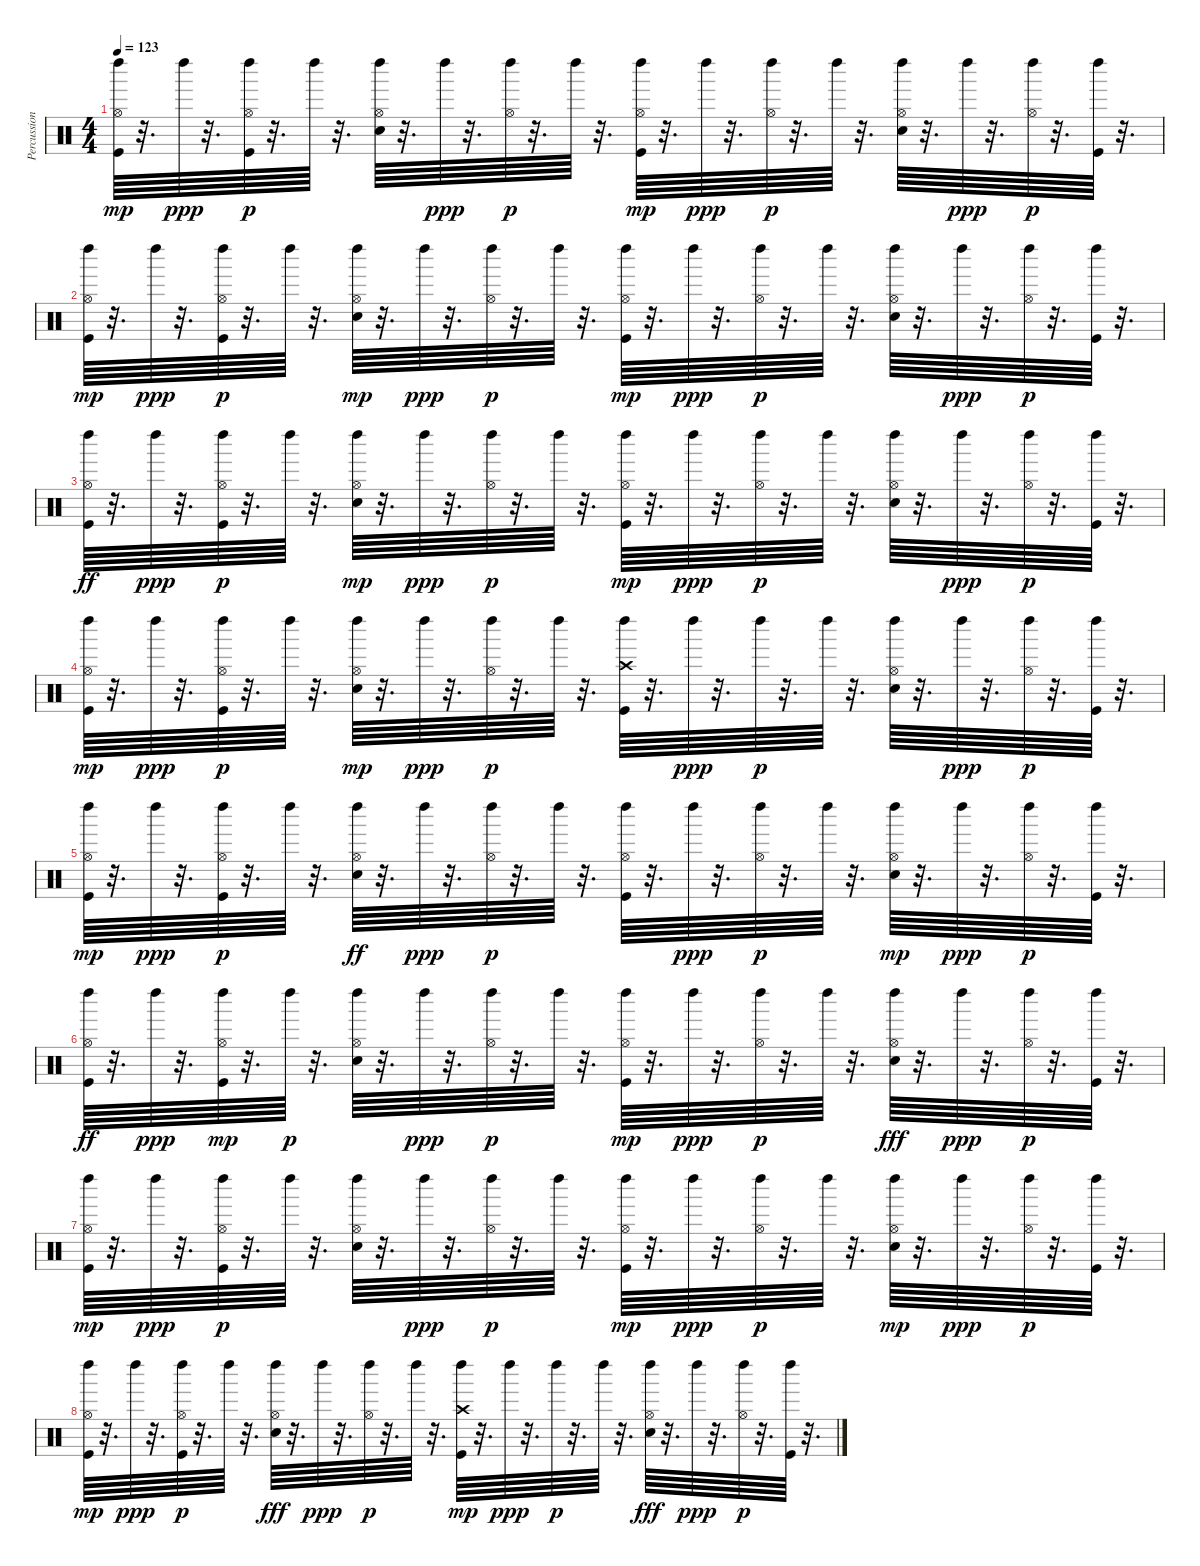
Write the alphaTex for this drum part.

\track ("Percussion" "Percussion") {instrument percussion}
\staff {score}
\articulation defaults
\ts (4 4)
\tempo 123
\clef neutral
\ks c
("Kick (hit)" "Hi-Hat (open)" "Left Maraca (hit)").64{dy mp} r.32{d} "Left Maraca (hit)".64{dy ppp} r.32{d} ("Kick (hit)" "Hi-Hat (open)" "Left Maraca (hit)").64{dy p} r.32{d} "Left Maraca (hit)".64 r.32{d} ("Left Maraca (hit)" "Electric Snare (hit)" "Hi-Hat (open)").64 r.32{d} "Left Maraca (hit)".64{dy ppp} r.32{d} ("Hi-Hat (open)" "Left Maraca (hit)").64{dy p} r.32{d} "Left Maraca (hit)".64 r.32{d} ("Kick (hit)" "Hi-Hat (open)" "Left Maraca (hit)").64{dy mp} r.32{d} "Left Maraca (hit)".64{dy ppp} r.32{d} ("Hi-Hat (open)" "Left Maraca (hit)").64{dy p} r.32{d} "Left Maraca (hit)".64 r.32{d} ("Left Maraca (hit)" "Electric Snare (hit)" "Hi-Hat (open)").64 r.32{d} "Left Maraca (hit)".64{dy ppp} r.32{d} ("Hi-Hat (open)" "Left Maraca (hit)").64{dy p} r.32{d} ("Kick (hit)" "Left Maraca (hit)").64 r.32{d} |
("Kick (hit)" "Hi-Hat (open)" "Left Maraca (hit)").64{dy mp} r.32{d} "Left Maraca (hit)".64{dy ppp} r.32{d} ("Kick (hit)" "Hi-Hat (open)" "Left Maraca (hit)").64{dy p} r.32{d} "Left Maraca (hit)".64 r.32{d} ("Electric Snare (hit)" "Hi-Hat (open)" "Left Maraca (hit)").64{dy mp} r.32{d} "Left Maraca (hit)".64{dy ppp} r.32{d} ("Hi-Hat (open)" "Left Maraca (hit)").64{dy p} r.32{d} "Left Maraca (hit)".64 r.32{d} ("Kick (hit)" "Hi-Hat (open)" "Left Maraca (hit)").64{dy mp} r.32{d} "Left Maraca (hit)".64{dy ppp} r.32{d} ("Hi-Hat (open)" "Left Maraca (hit)").64{dy p} r.32{d} "Left Maraca (hit)".64 r.32{d} ("Left Maraca (hit)" "Electric Snare (hit)" "Hi-Hat (open)").64 r.32{d} "Left Maraca (hit)".64{dy ppp} r.32{d} ("Hi-Hat (open)" "Left Maraca (hit)").64{dy p} r.32{d} ("Kick (hit)" "Left Maraca (hit)").64 r.32{d} |
("Hi-Hat (open)" "Left Maraca (hit)" "Kick (hit)").64{dy ff} r.32{d} "Left Maraca (hit)".64{dy ppp} r.32{d} ("Left Maraca (hit)" "Kick (hit)" "Hi-Hat (open)").64{dy p} r.32{d} "Left Maraca (hit)".64 r.32{d} ("Electric Snare (hit)" "Hi-Hat (open)" "Left Maraca (hit)").64{dy mp} r.32{d} "Left Maraca (hit)".64{dy ppp} r.32{d} ("Hi-Hat (open)" "Left Maraca (hit)").64{dy p} r.32{d} "Left Maraca (hit)".64 r.32{d} ("Kick (hit)" "Hi-Hat (open)" "Left Maraca (hit)").64{dy mp} r.32{d} "Left Maraca (hit)".64{dy ppp} r.32{d} ("Hi-Hat (open)" "Left Maraca (hit)").64{dy p} r.32{d} "Left Maraca (hit)".64 r.32{d} ("Left Maraca (hit)" "Electric Snare (hit)" "Hi-Hat (open)").64 r.32{d} "Left Maraca (hit)".64{dy ppp} r.32{d} ("Hi-Hat (open)" "Left Maraca (hit)").64{dy p} r.32{d} ("Kick (hit)" "Left Maraca (hit)").64 r.32{d} |
("Kick (hit)" "Hi-Hat (open)" "Left Maraca (hit)").64{dy mp} r.32{d} "Left Maraca (hit)".64{dy ppp} r.32{d} ("Kick (hit)" "Hi-Hat (open)" "Left Maraca (hit)").64{dy p} r.32{d} "Left Maraca (hit)".64 r.32{d} ("Electric Snare (hit)" "Hi-Hat (open)" "Left Maraca (hit)").64{dy mp} r.32{d} "Left Maraca (hit)".64{dy ppp} r.32{d} ("Hi-Hat (open)" "Left Maraca (hit)").64{dy p} r.32{d} "Left Maraca (hit)".64 r.32{d} ("Kick (hit)" "Left Maraca (hit)" "Crash high (hit)").64{volume 13} r.32{d} "Left Maraca (hit)".64{dy ppp} r.32{d} "Left Maraca (hit)".64{dy p volume 12} r.32{d} "Left Maraca (hit)".64 r.32{d} ("Left Maraca (hit)" "Electric Snare (hit)" "Hi-Hat (open)").64{volume 12} r.32{d} "Left Maraca (hit)".64{dy ppp} r.32{d} ("Hi-Hat (open)" "Left Maraca (hit)").64{dy p volume 12} r.32{d} ("Kick (hit)" "Left Maraca (hit)").64 r.32{d} |
("Kick (hit)" "Hi-Hat (open)" "Left Maraca (hit)").64{dy mp volume 12} r.32{d} "Left Maraca (hit)".64{dy ppp} r.32{d} ("Kick (hit)" "Left Maraca (hit)" "Hi-Hat (open)").64{dy p volume 12} r.32{d} "Left Maraca (hit)".64 r.32{d} ("Hi-Hat (open)" "Left Maraca (hit)" "Electric Snare (hit)").64{dy ff volume 12} r.32{d} "Left Maraca (hit)".64{dy ppp} r.32{d} ("Hi-Hat (open)" "Left Maraca (hit)").64{dy p volume 12} r.32{d} "Left Maraca (hit)".64 r.32{d} ("Kick (hit)" "Left Maraca (hit)" "Hi-Hat (open)").64{volume 11} r.32{d} "Left Maraca (hit)".64{dy ppp} r.32{d} ("Hi-Hat (open)" "Left Maraca (hit)").64{dy p volume 11} r.32{d} "Left Maraca (hit)".64 r.32{d} ("Hi-Hat (open)" "Electric Snare (hit)" "Left Maraca (hit)").64{dy mp volume 11} r.32{d} "Left Maraca (hit)".64{dy ppp} r.32{d} ("Hi-Hat (open)" "Left Maraca (hit)").64{dy p volume 11} r.32{d} ("Kick (hit)" "Left Maraca (hit)").64 r.32{d} |
("Hi-Hat (open)" "Left Maraca (hit)" "Kick (hit)").64{dy ff volume 10} r.32{d} "Left Maraca (hit)".64{dy ppp} r.32{d} ("Hi-Hat (open)" "Left Maraca (hit)" "Kick (hit)").64{dy mp volume 10} r.32{d} "Left Maraca (hit)".64{dy p} r.32{d} ("Electric Snare (hit)" "Left Maraca (hit)" "Hi-Hat (open)").64{volume 10} r.32{d} "Left Maraca (hit)".64{dy ppp} r.32{d} ("Hi-Hat (open)" "Left Maraca (hit)").64{dy p volume 10} r.32{d} "Left Maraca (hit)".64 r.32{d} ("Kick (hit)" "Hi-Hat (open)" "Left Maraca (hit)").64{dy mp volume 10} r.32{d} "Left Maraca (hit)".64{dy ppp} r.32{d} ("Hi-Hat (open)" "Left Maraca (hit)").64{dy p volume 9} r.32{d} "Left Maraca (hit)".64 r.32{d} ("Hi-Hat (open)" "Left Maraca (hit)" "Electric Snare (hit)").64{dy fff volume 9} r.32{d} "Left Maraca (hit)".64{dy ppp} r.32{d} ("Hi-Hat (open)" "Left Maraca (hit)").64{dy p volume 9} r.32{d} ("Kick (hit)" "Left Maraca (hit)").64 r.32{d} |
("Kick (hit)" "Hi-Hat (open)" "Left Maraca (hit)").64{dy mp volume 9} r.32{d} "Left Maraca (hit)".64{dy ppp} r.32{d} ("Kick (hit)" "Hi-Hat (open)" "Left Maraca (hit)").64{dy p volume 9} r.32{d} "Left Maraca (hit)".64 r.32{d} ("Left Maraca (hit)" "Electric Snare (hit)" "Hi-Hat (open)").64{volume 8} r.32{d} "Left Maraca (hit)".64{dy ppp} r.32{d} ("Left Maraca (hit)" "Hi-Hat (open)").64{dy p volume 8} r.32{d} "Left Maraca (hit)".64 r.32{d} ("Kick (hit)" "Hi-Hat (open)" "Left Maraca (hit)").64{dy mp volume 8} r.32{d} "Left Maraca (hit)".64{dy ppp} r.32{d} ("Hi-Hat (open)" "Left Maraca (hit)").64{dy p volume 8} r.32{d} "Left Maraca (hit)".64 r.32{d} ("Electric Snare (hit)" "Hi-Hat (open)" "Left Maraca (hit)").64{dy mp volume 8} r.32{d} "Left Maraca (hit)".64{dy ppp} r.32{d} ("Left Maraca (hit)" "Hi-Hat (open)").64{dy p volume 7} r.32{d} ("Kick (hit)" "Left Maraca (hit)").64 r.32{d} |
("Hi-Hat (open)" "Kick (hit)" "Left Maraca (hit)").64{dy mp volume 7} r.32{d} "Left Maraca (hit)".64{dy ppp} r.32{d} ("Left Maraca (hit)" "Kick (hit)" "Hi-Hat (open)").64{dy p volume 7} r.32{d} "Left Maraca (hit)".64 r.32{d} ("Left Maraca (hit)" "Hi-Hat (open)" "Electric Snare (hit)").64{dy fff volume 7} r.32{d} "Left Maraca (hit)".64{dy ppp} r.32{d} ("Hi-Hat (open)" "Left Maraca (hit)").64{dy p volume 6} r.32{d} "Left Maraca (hit)".64 r.32{d} ("Kick (hit)" "Crash high (hit)" "Left Maraca (hit)").64{dy mp volume 6} r.32{d} "Left Maraca (hit)".64{dy ppp} r.32{d} "Left Maraca (hit)".64{dy p volume 6} r.32{d} "Left Maraca (hit)".64 r.32{d} ("Hi-Hat (open)" "Left Maraca (hit)" "Electric Snare (hit)").64{dy fff volume 6} r.32{d} "Left Maraca (hit)".64{dy ppp} r.32{d} ("Hi-Hat (open)" "Left Maraca (hit)").64{dy p volume 6} r.32{d} ("Kick (hit)" "Left Maraca (hit)").64 r.32{d}
